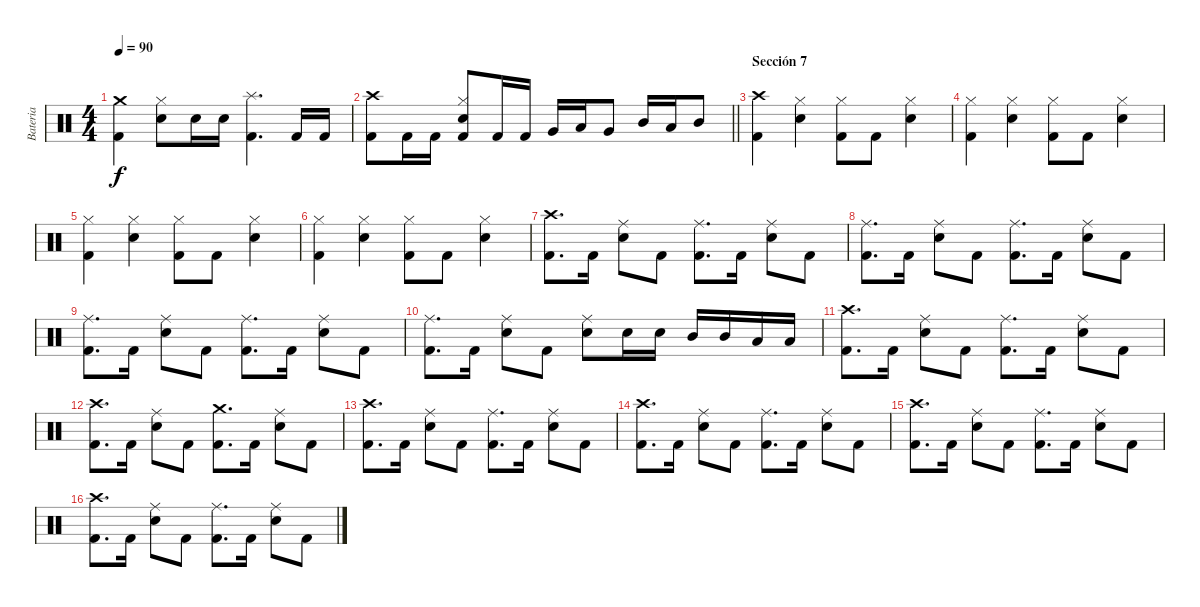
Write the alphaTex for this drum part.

\track ("Bateria" "Bateria") {instrument percussion}
\staff {score}
\articulation defaults
\ts (4 4)
\tempo 90
\clef neutral
\ks c
("Crash medium (hit)" "Kick (hit) 2").4{dy f} ("Hi-Hat (closed)" "Snare (hit) 2").8 "Snare (hit) 2".16 "Snare (hit) 2".16 ("Splash (hit)" "Kick (hit) 2").4{d} "Kick (hit) 2".16 "Kick (hit) 2".16 |
\barLineRight lightlight
("Crash high (hit)" "Kick (hit) 2").8 "Kick (hit) 2".16 "Kick (hit) 2".16 ("Hi-Hat (closed)" "Snare (hit) 2" "Kick (hit) 2").8 "Kick (hit) 2".16 "Kick (hit) 2".16 "Very Low Tom (hit)".16 "Low Floor Tom (hit)".16 "Very Low Tom (hit)".8 "Mid Tom (hit)".16 "Low Tom (hit)".16 "Mid Tom (hit)".8 |
\section ("" "Sección 7")
("Crash high (hit)" "Kick (hit) 2").4 ("Hi-Hat (closed)" "Snare (hit) 2").4 ("Hi-Hat (closed)" "Kick (hit) 2").8 "Kick (hit) 2".8 ("Hi-Hat (closed)" "Snare (hit) 2").4 |
("Hi-Hat (closed)" "Kick (hit) 2").4 ("Hi-Hat (closed)" "Snare (hit) 2").4 ("Hi-Hat (closed)" "Kick (hit) 2").8 "Kick (hit) 2".8 ("Hi-Hat (closed)" "Snare (hit) 2").4 |
("Hi-Hat (closed)" "Kick (hit) 2").4 ("Hi-Hat (closed)" "Snare (hit) 2").4 ("Hi-Hat (closed)" "Kick (hit) 2").8 "Kick (hit) 2".8 ("Hi-Hat (closed)" "Snare (hit) 2").4 |
("Hi-Hat (closed)" "Kick (hit) 2").4 ("Hi-Hat (closed)" "Snare (hit) 2").4 ("Hi-Hat (closed)" "Kick (hit) 2").8 "Kick (hit) 2".8 ("Hi-Hat (closed)" "Snare (hit) 2").4 |
("Crash high (hit)" "Kick (hit) 2").8{d} "Kick (hit) 2".16 ("Ride (middle)" "Snare (hit) 2").8 "Kick (hit) 2".8 ("Ride (middle)" "Kick (hit) 2").8{d} "Kick (hit) 2".16 ("Ride (middle)" "Snare (hit) 2").8 "Kick (hit) 2".8 |
("Ride (middle)" "Kick (hit) 2").8{d} "Kick (hit) 2".16 ("Ride (middle)" "Snare (hit) 2").8 "Kick (hit) 2".8 ("Ride (middle)" "Kick (hit) 2").8{d} "Kick (hit) 2".16 ("Ride (middle)" "Snare (hit) 2").8 "Kick (hit) 2".8 |
("Ride (middle)" "Kick (hit) 2").8{d} "Kick (hit) 2".16 ("Ride (middle)" "Snare (hit) 2").8 "Kick (hit) 2".8 ("Ride (middle)" "Kick (hit) 2").8{d} "Kick (hit) 2".16 ("Ride (middle)" "Snare (hit) 2").8 "Kick (hit) 2".8 |
("Ride (middle)" "Kick (hit) 2").8{d} "Kick (hit) 2".16 ("Ride (middle)" "Snare (hit) 2").8 "Kick (hit) 2".8 ("Ride (middle)" "Snare (hit) 2").8 "Snare (hit) 2".16 "Snare (hit) 2".16 "Mid Tom (hit)".16 "Mid Tom (hit)".16 "Low Tom (hit)".16 "Low Tom (hit)".16 |
("Crash high (hit)" "Kick (hit) 2").8{d} "Kick (hit) 2".16 ("Ride (middle)" "Snare (hit) 2").8 "Kick (hit) 2".8 ("Ride (middle)" "Kick (hit) 2").8{d} "Kick (hit) 2".16 ("Ride (middle)" "Snare (hit) 2").8 "Kick (hit) 2".8 |
("Crash high (hit)" "Kick (hit) 2").8{d} "Kick (hit) 2".16 ("Ride (middle)" "Snare (hit) 2").8 "Kick (hit) 2".8 ("Crash medium (hit)" "Kick (hit) 2").8{d} "Kick (hit) 2".16 ("Ride (middle)" "Snare (hit) 2").8 "Kick (hit) 2".8 |
("Crash high (hit)" "Kick (hit) 2").8{d} "Kick (hit) 2".16 ("Ride (middle)" "Snare (hit) 2").8 "Kick (hit) 2".8 ("Ride (middle)" "Kick (hit) 2").8{d} "Kick (hit) 2".16 ("Ride (middle)" "Snare (hit) 2").8 "Kick (hit) 2".8 |
("Crash high (hit)" "Kick (hit) 2").8{d} "Kick (hit) 2".16 ("Ride (middle)" "Snare (hit) 2").8 "Kick (hit) 2".8 ("Ride (middle)" "Kick (hit) 2").8{d} "Kick (hit) 2".16 ("Ride (middle)" "Snare (hit) 2").8 "Kick (hit) 2".8 |
("Crash high (hit)" "Kick (hit) 2").8{d} "Kick (hit) 2".16 ("Ride (middle)" "Snare (hit) 2").8 "Kick (hit) 2".8 ("Ride (middle)" "Kick (hit) 2").8{d} "Kick (hit) 2".16 ("Ride (middle)" "Snare (hit) 2").8 "Kick (hit) 2".8 |
("Crash high (hit)" "Kick (hit) 2").8{d} "Kick (hit) 2".16 ("Ride (middle)" "Snare (hit) 2").8 "Kick (hit) 2".8 ("Ride (middle)" "Kick (hit) 2").8{d} "Kick (hit) 2".16 ("Ride (middle)" "Snare (hit) 2").8 "Kick (hit) 2".8
